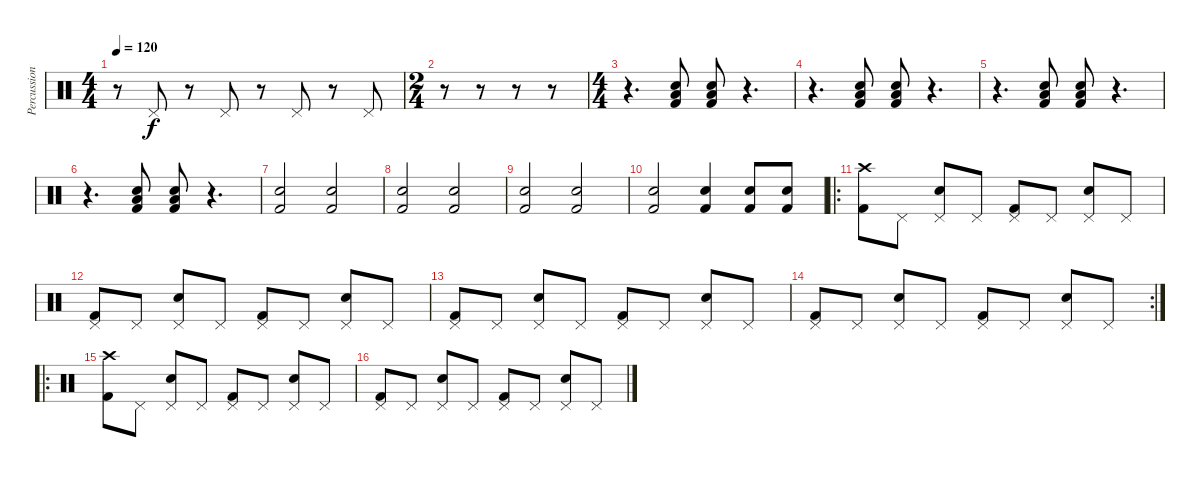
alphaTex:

\track ("Percussions" "Percussion") {instrument percussion}
\staff {score}
\articulation defaults
\ts (4 4)
\tempo 120
\clef neutral
\ks c
r.8{dy f} "Pedal Hi-Hat (hit)".8 r.8 "Pedal Hi-Hat (hit)".8 r.8 "Pedal Hi-Hat (hit)".8 r.8 "Pedal Hi-Hat (hit)".8 |
\ts (2 4)
r.8 r.8 r.8 r.8 |
\ts (4 4)
r.4{d} ("Kick (hit) 2" "Low Tom (hit)" "Snare (hit) 2").8 ("Kick (hit) 2" "Low Tom (hit)" "Snare (hit) 2").8 r.4{d} |
r.4{d} ("Kick (hit) 2" "Low Tom (hit)" "Snare (hit) 2").8 ("Kick (hit) 2" "Low Tom (hit)" "Snare (hit) 2").8 r.4{d} |
r.4{d} ("Kick (hit) 2" "Low Tom (hit)" "Snare (hit) 2").8 ("Kick (hit) 2" "Low Tom (hit)" "Snare (hit) 2").8 r.4{d} |
r.4{d} ("Kick (hit) 2" "Low Tom (hit)" "Snare (hit) 2").8 ("Kick (hit) 2" "Low Tom (hit)" "Snare (hit) 2").8 r.4{d} |
("Snare (hit) 2" "Kick (hit) 2").2 ("Snare (hit) 2" "Kick (hit) 2").2 |
("Snare (hit) 2" "Kick (hit) 2").2 ("Snare (hit) 2" "Kick (hit) 2").2 |
("Snare (hit) 2" "Kick (hit) 2").2 ("Snare (hit) 2" "Kick (hit) 2").2 |
("Snare (hit) 2" "Kick (hit) 2").2 ("Snare (hit) 2" "Kick (hit) 2").4 ("Snare (hit) 2" "Kick (hit) 2").8 ("Snare (hit) 2" "Kick (hit) 2").8 |
\ro
("Crash high (hit)" "Kick (hit) 2").8 "Pedal Hi-Hat (hit)".8 ("Pedal Hi-Hat (hit)" "Snare (hit) 2").8 "Pedal Hi-Hat (hit)".8 ("Pedal Hi-Hat (hit)" "Kick (hit) 2").8 "Pedal Hi-Hat (hit)".8 ("Pedal Hi-Hat (hit)" "Snare (hit) 2").8 "Pedal Hi-Hat (hit)".8 |
("Pedal Hi-Hat (hit)" "Kick (hit) 2").8 "Pedal Hi-Hat (hit)".8 ("Pedal Hi-Hat (hit)" "Snare (hit) 2").8 "Pedal Hi-Hat (hit)".8 ("Pedal Hi-Hat (hit)" "Kick (hit) 2").8 "Pedal Hi-Hat (hit)".8 ("Pedal Hi-Hat (hit)" "Snare (hit) 2").8 "Pedal Hi-Hat (hit)".8 |
("Pedal Hi-Hat (hit)" "Kick (hit) 2").8 "Pedal Hi-Hat (hit)".8 ("Pedal Hi-Hat (hit)" "Snare (hit) 2").8 "Pedal Hi-Hat (hit)".8 ("Pedal Hi-Hat (hit)" "Kick (hit) 2").8 "Pedal Hi-Hat (hit)".8 ("Pedal Hi-Hat (hit)" "Snare (hit) 2").8 "Pedal Hi-Hat (hit)".8 |
\rc 2
("Pedal Hi-Hat (hit)" "Kick (hit) 2").8 "Pedal Hi-Hat (hit)".8 ("Pedal Hi-Hat (hit)" "Snare (hit) 2").8 "Pedal Hi-Hat (hit)".8 ("Pedal Hi-Hat (hit)" "Kick (hit) 2").8 "Pedal Hi-Hat (hit)".8 ("Pedal Hi-Hat (hit)" "Snare (hit) 2").8 "Pedal Hi-Hat (hit)".8 |
\ro
("Crash high (hit)" "Kick (hit) 2").8 "Pedal Hi-Hat (hit)".8 ("Pedal Hi-Hat (hit)" "Snare (hit) 2").8 "Pedal Hi-Hat (hit)".8 ("Pedal Hi-Hat (hit)" "Kick (hit) 2").8 "Pedal Hi-Hat (hit)".8 ("Pedal Hi-Hat (hit)" "Snare (hit) 2").8 "Pedal Hi-Hat (hit)".8 |
("Pedal Hi-Hat (hit)" "Kick (hit) 2").8 "Pedal Hi-Hat (hit)".8 ("Pedal Hi-Hat (hit)" "Snare (hit) 2").8 "Pedal Hi-Hat (hit)".8 ("Pedal Hi-Hat (hit)" "Kick (hit) 2").8 "Pedal Hi-Hat (hit)".8 ("Pedal Hi-Hat (hit)" "Snare (hit) 2").8 "Pedal Hi-Hat (hit)".8
